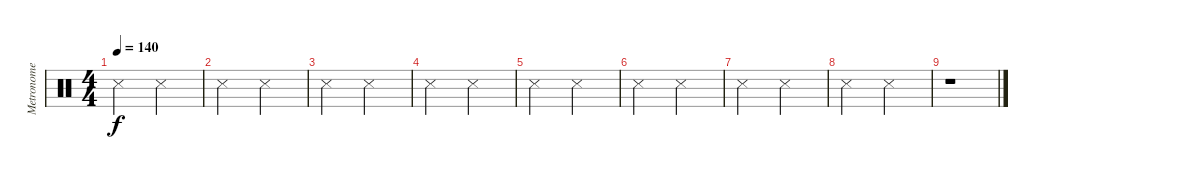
\track ("Metronome" "Metronome") {instrument percussion}
\staff {score}
\articulation defaults
\ts (4 4)
\tempo 140
\clef neutral
\ks c "Snare (side stick) 3".2{dy f} "Snare (side stick) 3".2
|
"Snare (side stick) 3".2 "Snare (side stick) 3".2 |
"Snare (side stick) 3".2 "Snare (side stick) 3".2 |
"Snare (side stick) 3".2 "Snare (side stick) 3".2 |
"Snare (side stick) 3".2 "Snare (side stick) 3".2 |
"Snare (side stick) 3".2 "Snare (side stick) 3".2 |
"Snare (side stick) 3".2 "Snare (side stick) 3".2 |
"Snare (side stick) 3".2 "Snare (side stick) 3".2 |
r.1
